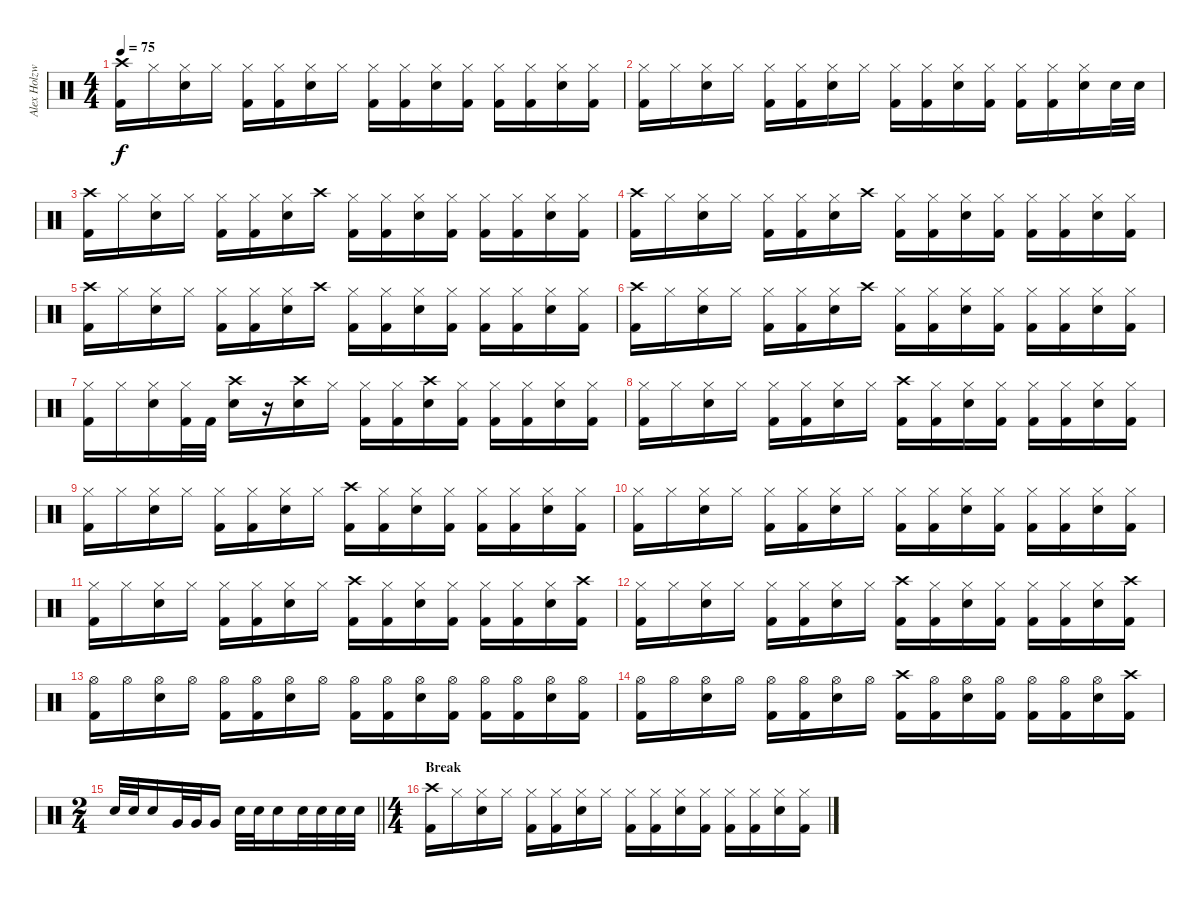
\track ("Alex Holzwarth (Drums)" "Alex Holzw") {instrument percussion}
\staff {score}
\articulation defaults
\ts (4 4)
\tempo 75
\clef neutral
\ks c
("Crash high (hit)" "Kick (hit) 2").16{dy f} "Hi-Hat (closed)".16 ("Hi-Hat (closed)" "Electric Snare (hit)").16 "Hi-Hat (closed)".16 ("Hi-Hat (closed)" "Kick (hit) 2").16 ("Hi-Hat (closed)" "Kick (hit) 2").16 ("Hi-Hat (closed)" "Electric Snare (hit)").16 "Hi-Hat (closed)".16 ("Hi-Hat (closed)" "Kick (hit) 2").16 ("Hi-Hat (closed)" "Kick (hit) 2").16 ("Hi-Hat (closed)" "Electric Snare (hit)").16 ("Hi-Hat (closed)" "Kick (hit) 2").16 ("Hi-Hat (closed)" "Kick (hit) 2").16 ("Hi-Hat (closed)" "Kick (hit) 2").16 ("Hi-Hat (closed)" "Electric Snare (hit)").16 ("Hi-Hat (closed)" "Kick (hit) 2").16 |
("Hi-Hat (closed)" "Kick (hit) 2").16 "Hi-Hat (closed)".16 ("Hi-Hat (closed)" "Electric Snare (hit)").16 "Hi-Hat (closed)".16 ("Hi-Hat (closed)" "Kick (hit) 2").16 ("Hi-Hat (closed)" "Kick (hit) 2").16 ("Hi-Hat (closed)" "Electric Snare (hit)").16 "Hi-Hat (closed)".16 ("Hi-Hat (closed)" "Kick (hit) 2").16 ("Hi-Hat (closed)" "Kick (hit) 2").16 ("Hi-Hat (closed)" "Electric Snare (hit)").16 ("Hi-Hat (closed)" "Kick (hit) 2").16 ("Hi-Hat (closed)" "Kick (hit) 2").16 ("Hi-Hat (closed)" "Kick (hit) 2").16 ("Hi-Hat (closed)" "Electric Snare (hit)").16 "Electric Snare (hit)".32 "Electric Snare (hit)".32 |
("Crash high (hit)" "Kick (hit) 2").16 "Hi-Hat (closed)".16 ("Hi-Hat (closed)" "Electric Snare (hit)").16 "Hi-Hat (closed)".16 ("Hi-Hat (closed)" "Kick (hit) 2").16 ("Hi-Hat (closed)" "Kick (hit) 2").16 ("Hi-Hat (closed)" "Electric Snare (hit)").16 "Crash high (hit)".16 ("Hi-Hat (closed)" "Kick (hit) 2").16 ("Hi-Hat (closed)" "Kick (hit) 2").16 ("Hi-Hat (closed)" "Electric Snare (hit)").16 ("Hi-Hat (closed)" "Kick (hit) 2").16 ("Hi-Hat (closed)" "Kick (hit) 2").16 ("Hi-Hat (closed)" "Kick (hit) 2").16 ("Hi-Hat (closed)" "Electric Snare (hit)").16 ("Hi-Hat (closed)" "Kick (hit) 2").16 |
("Crash high (hit)" "Kick (hit) 2").16 "Hi-Hat (closed)".16 ("Hi-Hat (closed)" "Electric Snare (hit)").16 "Hi-Hat (closed)".16 ("Hi-Hat (closed)" "Kick (hit) 2").16 ("Hi-Hat (closed)" "Kick (hit) 2").16 ("Hi-Hat (closed)" "Electric Snare (hit)").16 "Crash high (hit)".16 ("Hi-Hat (closed)" "Kick (hit) 2").16 ("Hi-Hat (closed)" "Kick (hit) 2").16 ("Hi-Hat (closed)" "Electric Snare (hit)").16 ("Hi-Hat (closed)" "Kick (hit) 2").16 ("Hi-Hat (closed)" "Kick (hit) 2").16 ("Hi-Hat (closed)" "Kick (hit) 2").16 ("Hi-Hat (closed)" "Electric Snare (hit)").16 ("Hi-Hat (closed)" "Kick (hit) 2").16 |
("Crash high (hit)" "Kick (hit) 2").16 "Hi-Hat (closed)".16 ("Hi-Hat (closed)" "Electric Snare (hit)").16 "Hi-Hat (closed)".16 ("Hi-Hat (closed)" "Kick (hit) 2").16 ("Hi-Hat (closed)" "Kick (hit) 2").16 ("Hi-Hat (closed)" "Electric Snare (hit)").16 "Crash high (hit)".16 ("Hi-Hat (closed)" "Kick (hit) 2").16 ("Hi-Hat (closed)" "Kick (hit) 2").16 ("Hi-Hat (closed)" "Electric Snare (hit)").16 ("Hi-Hat (closed)" "Kick (hit) 2").16 ("Hi-Hat (closed)" "Kick (hit) 2").16 ("Hi-Hat (closed)" "Kick (hit) 2").16 ("Hi-Hat (closed)" "Electric Snare (hit)").16 ("Hi-Hat (closed)" "Kick (hit) 2").16 |
("Crash high (hit)" "Kick (hit) 2").16 "Hi-Hat (closed)".16 ("Hi-Hat (closed)" "Electric Snare (hit)").16 "Hi-Hat (closed)".16 ("Hi-Hat (closed)" "Kick (hit) 2").16 ("Hi-Hat (closed)" "Kick (hit) 2").16 ("Hi-Hat (closed)" "Electric Snare (hit)").16 "Crash high (hit)".16 ("Hi-Hat (closed)" "Kick (hit) 2").16 ("Hi-Hat (closed)" "Kick (hit) 2").16 ("Hi-Hat (closed)" "Electric Snare (hit)").16 ("Hi-Hat (closed)" "Kick (hit) 2").16 ("Hi-Hat (closed)" "Kick (hit) 2").16 ("Hi-Hat (closed)" "Kick (hit) 2").16 ("Hi-Hat (closed)" "Electric Snare (hit)").16 ("Hi-Hat (closed)" "Kick (hit) 2").16 |
("Hi-Hat (closed)" "Kick (hit) 2").16 "Hi-Hat (closed)".16 ("Hi-Hat (closed)" "Electric Snare (hit)").16 ("Hi-Hat (closed)" "Kick (hit) 2").32 "Kick (hit) 2".32 ("Crash high (hit)" "Electric Snare (hit)").16 r.16 ("Crash high (hit)" "Electric Snare (hit)").16 "Hi-Hat (closed)".16 ("Hi-Hat (closed)" "Kick (hit) 2").16 ("Hi-Hat (closed)" "Kick (hit) 2").16 ("Crash high (hit)" "Electric Snare (hit)").16 ("Hi-Hat (closed)" "Kick (hit) 2").16 ("Hi-Hat (closed)" "Kick (hit) 2").16 ("Hi-Hat (closed)" "Kick (hit) 2").16 ("Hi-Hat (closed)" "Electric Snare (hit)").16 ("Hi-Hat (closed)" "Kick (hit) 2").16 |
("Hi-Hat (closed)" "Kick (hit) 2").16 "Hi-Hat (closed)".16 ("Hi-Hat (closed)" "Electric Snare (hit)").16 "Hi-Hat (closed)".16 ("Hi-Hat (closed)" "Kick (hit) 2").16 ("Hi-Hat (closed)" "Kick (hit) 2").16 ("Hi-Hat (closed)" "Electric Snare (hit)").16 "Hi-Hat (closed)".16 ("Crash high (hit)" "Kick (hit) 2").16 ("Hi-Hat (closed)" "Kick (hit) 2").16 ("Hi-Hat (closed)" "Electric Snare (hit)").16 ("Hi-Hat (closed)" "Kick (hit) 2").16 ("Hi-Hat (closed)" "Kick (hit) 2").16 ("Hi-Hat (closed)" "Kick (hit) 2").16 ("Hi-Hat (closed)" "Electric Snare (hit)").16 ("Hi-Hat (closed)" "Kick (hit) 2").16 |
("Hi-Hat (closed)" "Kick (hit) 2").16 "Hi-Hat (closed)".16 ("Hi-Hat (closed)" "Electric Snare (hit)").16 "Hi-Hat (closed)".16 ("Hi-Hat (closed)" "Kick (hit) 2").16 ("Hi-Hat (closed)" "Kick (hit) 2").16 ("Hi-Hat (closed)" "Electric Snare (hit)").16 "Hi-Hat (closed)".16 ("Crash high (hit)" "Kick (hit) 2").16 ("Hi-Hat (closed)" "Kick (hit) 2").16 ("Hi-Hat (closed)" "Electric Snare (hit)").16 ("Hi-Hat (closed)" "Kick (hit) 2").16 ("Hi-Hat (closed)" "Kick (hit) 2").16 ("Hi-Hat (closed)" "Kick (hit) 2").16 ("Hi-Hat (closed)" "Electric Snare (hit)").16 ("Hi-Hat (closed)" "Kick (hit) 2").16 |
("Hi-Hat (closed)" "Kick (hit) 2").16 "Hi-Hat (closed)".16 ("Hi-Hat (closed)" "Electric Snare (hit)").16 "Hi-Hat (closed)".16 ("Hi-Hat (closed)" "Kick (hit) 2").16 ("Hi-Hat (closed)" "Kick (hit) 2").16 ("Hi-Hat (closed)" "Electric Snare (hit)").16 "Hi-Hat (closed)".16 ("Hi-Hat (closed)" "Kick (hit) 2").16 ("Hi-Hat (closed)" "Kick (hit) 2").16 ("Hi-Hat (closed)" "Electric Snare (hit)").16 ("Hi-Hat (closed)" "Kick (hit) 2").16 ("Hi-Hat (closed)" "Kick (hit) 2").16 ("Hi-Hat (closed)" "Kick (hit) 2").16 ("Hi-Hat (closed)" "Electric Snare (hit)").16 ("Hi-Hat (closed)" "Kick (hit) 2").16 |
("Hi-Hat (closed)" "Kick (hit) 2").16 "Hi-Hat (closed)".16 ("Hi-Hat (closed)" "Electric Snare (hit)").16 "Hi-Hat (closed)".16 ("Hi-Hat (closed)" "Kick (hit) 2").16 ("Hi-Hat (closed)" "Kick (hit) 2").16 ("Hi-Hat (closed)" "Electric Snare (hit)").16 "Hi-Hat (closed)".16 ("Crash high (hit)" "Kick (hit) 2").16 ("Hi-Hat (closed)" "Kick (hit) 2").16 ("Hi-Hat (closed)" "Electric Snare (hit)").16 ("Hi-Hat (closed)" "Kick (hit) 2").16 ("Hi-Hat (closed)" "Kick (hit) 2").16 ("Hi-Hat (closed)" "Kick (hit) 2").16 ("Hi-Hat (closed)" "Electric Snare (hit)").16 ("Crash high (hit)" "Kick (hit) 2").16 |
("Hi-Hat (closed)" "Kick (hit) 2").16 "Hi-Hat (closed)".16 ("Hi-Hat (closed)" "Electric Snare (hit)").16 "Hi-Hat (closed)".16 ("Hi-Hat (closed)" "Kick (hit) 2").16 ("Hi-Hat (closed)" "Kick (hit) 2").16 ("Hi-Hat (closed)" "Electric Snare (hit)").16 "Hi-Hat (closed)".16 ("Crash high (hit)" "Kick (hit) 2").16 ("Hi-Hat (closed)" "Kick (hit) 2").16 ("Hi-Hat (closed)" "Electric Snare (hit)").16 ("Hi-Hat (closed)" "Kick (hit) 2").16 ("Hi-Hat (closed)" "Kick (hit) 2").16 ("Hi-Hat (closed)" "Kick (hit) 2").16 ("Hi-Hat (closed)" "Electric Snare (hit)").16 ("Crash high (hit)" "Kick (hit) 2").16 |
("Hi-Hat (open)" "Kick (hit) 2").16 "Hi-Hat (open)".16 ("Hi-Hat (open)" "Electric Snare (hit)").16 "Hi-Hat (open)".16 ("Hi-Hat (open)" "Kick (hit) 2").16 ("Hi-Hat (open)" "Kick (hit) 2").16 ("Hi-Hat (open)" "Electric Snare (hit)").16 "Hi-Hat (open)".16 ("Hi-Hat (open)" "Kick (hit) 2").16 ("Hi-Hat (open)" "Kick (hit) 2").16 ("Hi-Hat (open)" "Electric Snare (hit)").16 ("Hi-Hat (open)" "Kick (hit) 2").16 ("Hi-Hat (open)" "Kick (hit) 2").16 ("Hi-Hat (open)" "Kick (hit) 2").16 ("Hi-Hat (open)" "Electric Snare (hit)").16 ("Hi-Hat (open)" "Kick (hit) 2").16 |
("Hi-Hat (open)" "Kick (hit) 2").16 "Hi-Hat (open)".16 ("Hi-Hat (open)" "Electric Snare (hit)").16 "Hi-Hat (open)".16 ("Hi-Hat (open)" "Kick (hit) 2").16 ("Hi-Hat (open)" "Kick (hit) 2").16 ("Hi-Hat (open)" "Electric Snare (hit)").16 "Hi-Hat (open)".16 ("Crash high (hit)" "Kick (hit) 2").16 ("Hi-Hat (open)" "Kick (hit) 2").16 ("Hi-Hat (open)" "Electric Snare (hit)").16 ("Hi-Hat (open)" "Kick (hit) 2").16 ("Hi-Hat (open)" "Kick (hit) 2").16 ("Hi-Hat (open)" "Kick (hit) 2").16 ("Hi-Hat (open)" "Electric Snare (hit)").16 ("Crash high (hit)" "Kick (hit) 2").16 |
\ts (2 4)
\barLineRight lightlight "Electric Snare (hit)".32 "Electric Snare (hit)".32 "Electric Snare (hit)".16 "Very Low Tom (hit)".32 "Very Low Tom (hit)".32 "Very Low Tom (hit)".16 "Electric Snare (hit)".32 "Electric Snare (hit)".32 "Electric Snare (hit)".16 "Electric Snare (hit)".32 "Electric Snare (hit)".32 "Electric Snare (hit)".32 "Electric Snare (hit)".32
|
\ts (4 4)
\section ("" "Break")
("Crash high (hit)" "Kick (hit) 2").16 "Hi-Hat (closed)".16 ("Hi-Hat (closed)" "Electric Snare (hit)").16 "Hi-Hat (closed)".16 ("Hi-Hat (closed)" "Kick (hit) 2").16 ("Hi-Hat (closed)" "Kick (hit) 2").16 ("Hi-Hat (closed)" "Electric Snare (hit)").16 "Hi-Hat (closed)".16 ("Hi-Hat (closed)" "Kick (hit) 2").16 ("Hi-Hat (closed)" "Kick (hit) 2").16 ("Hi-Hat (closed)" "Electric Snare (hit)").16 ("Hi-Hat (closed)" "Kick (hit) 2").16 ("Hi-Hat (closed)" "Kick (hit) 2").16 ("Hi-Hat (closed)" "Kick (hit) 2").16 ("Hi-Hat (closed)" "Electric Snare (hit)").16 ("Hi-Hat (closed)" "Kick (hit) 2").16
